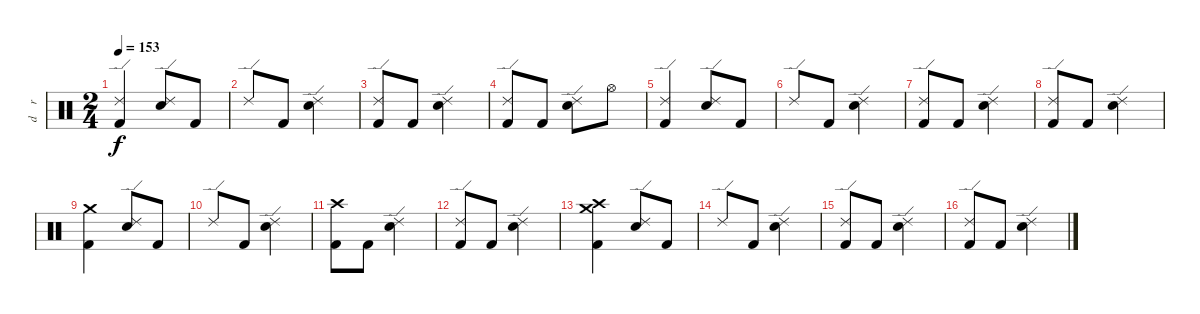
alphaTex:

\track ("d    r     u    m    s" "d    r    ") {instrument percussion}
\staff {score}
\articulation defaults
\ts (2 4)
\tempo 153
\clef neutral
\ks c
("Ride (edge) 2" "Kick (hit) 2").4{dy f} ("Ride (edge) 2" "Electric Snare (hit)").8 "Kick (hit) 2".8 |
"Ride (edge) 2".8 "Kick (hit) 2".8 ("Ride (edge) 2" "Electric Snare (hit)").4 |
("Ride (edge) 2" "Kick (hit) 2").8 "Kick (hit) 2".8 ("Ride (edge) 2" "Electric Snare (hit)").4 |
("Ride (edge) 2" "Kick (hit) 2").8 "Kick (hit) 2".8 ("Ride (edge) 2" "Electric Snare (hit)").8 "Hi-Hat (open)".8 |
("Ride (edge) 2" "Kick (hit) 2").4 ("Ride (edge) 2" "Electric Snare (hit)").8 "Kick (hit) 2".8 |
"Ride (edge) 2".8 "Kick (hit) 2".8 ("Ride (edge) 2" "Electric Snare (hit)").4 |
("Ride (edge) 2" "Kick (hit) 2").8 "Kick (hit) 2".8 ("Ride (edge) 2" "Electric Snare (hit)").4 |
("Ride (edge) 2" "Kick (hit) 2").8 "Kick (hit) 2".8 ("Ride (edge) 2" "Electric Snare (hit)").4 |
("Crash medium (hit)" "Kick (hit) 2").4 ("Ride (edge) 2" "Electric Snare (hit)").8 "Kick (hit) 2".8 |
"Ride (edge) 2".8 "Kick (hit) 2".8 ("Ride (edge) 2" "Electric Snare (hit)").4 |
("Crash high (hit)" "Kick (hit) 2").8 "Kick (hit) 2".8 ("Ride (edge) 2" "Electric Snare (hit)").4 |
("Ride (edge) 2" "Kick (hit) 2").8 "Kick (hit) 2".8 ("Ride (edge) 2" "Electric Snare (hit)").4 |
("Crash high (hit)" "Crash medium (hit)" "Kick (hit) 2").4 ("Ride (edge) 2" "Electric Snare (hit)").8 "Kick (hit) 2".8 |
"Ride (edge) 2".8 "Kick (hit) 2".8 ("Ride (edge) 2" "Electric Snare (hit)").4 |
("Ride (edge) 2" "Kick (hit) 2").8 "Kick (hit) 2".8 ("Ride (edge) 2" "Electric Snare (hit)").4 |
("Ride (edge) 2" "Kick (hit) 2").8 "Kick (hit) 2".8 ("Ride (edge) 2" "Electric Snare (hit)").4
